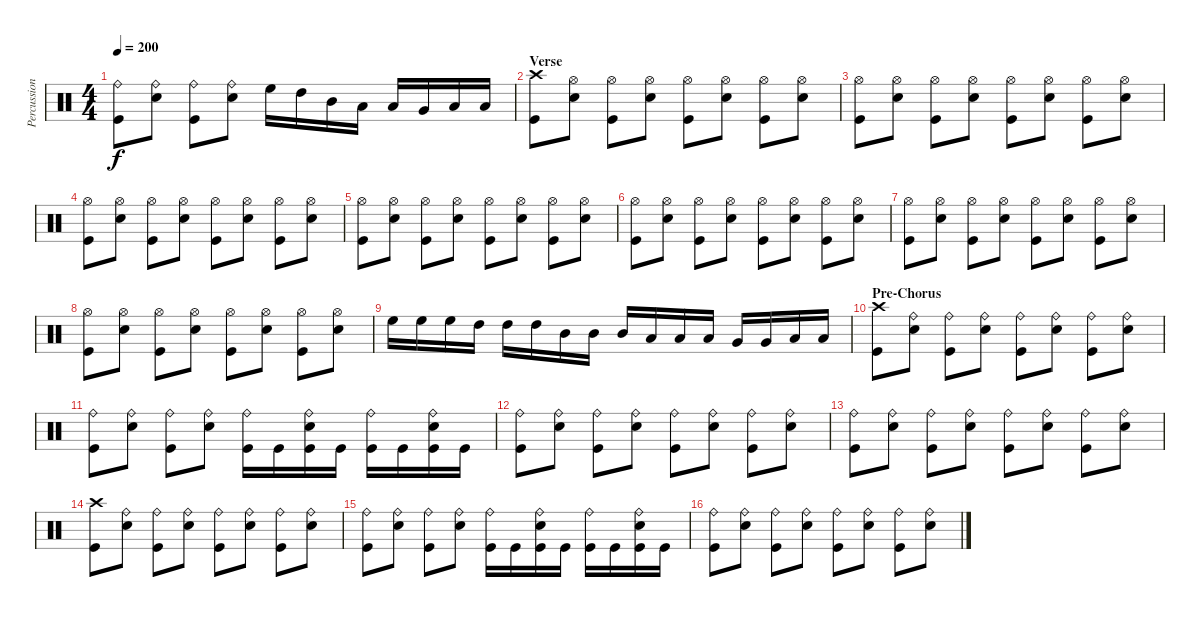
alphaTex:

\track ("Percussion" "Percussion") {instrument percussion}
\staff {score}
\articulation defaults
\ts (4 4)
\tempo 200
\clef neutral
\ks c
("Ride (bell)" "Kick (hit)").8{dy f} ("Ride (bell)" "Electric Snare (hit)").8 ("Ride (bell)" "Kick (hit)").8 ("Ride (bell)" "Electric Snare (hit)").8 "High Floor Tom (hit)".16 "High Tom (hit)".16 "Mid Tom (hit)".16 "Low Tom (hit)".16 "Low Tom (hit)".16 "Very Low Tom (hit)".16 "Low Floor Tom (hit)".16 "Low Tom (hit)".16 |
\section ("" "Verse")
("Crash high (hit)" "Kick (hit)").8 ("Hi-Hat (open)" "Electric Snare (hit)").8 ("Hi-Hat (open)" "Kick (hit)").8 ("Hi-Hat (open)" "Electric Snare (hit)").8 ("Hi-Hat (open)" "Kick (hit)").8 ("Hi-Hat (open)" "Electric Snare (hit)").8 ("Hi-Hat (open)" "Kick (hit)").8 ("Hi-Hat (open)" "Electric Snare (hit)").8 |
("Hi-Hat (open)" "Kick (hit)").8 ("Hi-Hat (open)" "Electric Snare (hit)").8 ("Hi-Hat (open)" "Kick (hit)").8 ("Hi-Hat (open)" "Electric Snare (hit)").8 ("Hi-Hat (open)" "Kick (hit)").8 ("Hi-Hat (open)" "Electric Snare (hit)").8 ("Hi-Hat (open)" "Kick (hit)").8 ("Hi-Hat (open)" "Electric Snare (hit)").8 |
("Hi-Hat (open)" "Kick (hit)").8 ("Hi-Hat (open)" "Electric Snare (hit)").8 ("Hi-Hat (open)" "Kick (hit)").8 ("Hi-Hat (open)" "Electric Snare (hit)").8 ("Hi-Hat (open)" "Kick (hit)").8 ("Hi-Hat (open)" "Electric Snare (hit)").8 ("Hi-Hat (open)" "Kick (hit)").8 ("Hi-Hat (open)" "Electric Snare (hit)").8 |
("Hi-Hat (open)" "Kick (hit)").8 ("Hi-Hat (open)" "Electric Snare (hit)").8 ("Hi-Hat (open)" "Kick (hit)").8 ("Hi-Hat (open)" "Electric Snare (hit)").8 ("Hi-Hat (open)" "Kick (hit)").8 ("Hi-Hat (open)" "Electric Snare (hit)").8 ("Hi-Hat (open)" "Kick (hit)").8 ("Hi-Hat (open)" "Electric Snare (hit)").8 |
("Hi-Hat (open)" "Kick (hit)").8 ("Hi-Hat (open)" "Electric Snare (hit)").8 ("Hi-Hat (open)" "Kick (hit)").8 ("Hi-Hat (open)" "Electric Snare (hit)").8 ("Hi-Hat (open)" "Kick (hit)").8 ("Hi-Hat (open)" "Electric Snare (hit)").8 ("Hi-Hat (open)" "Kick (hit)").8 ("Hi-Hat (open)" "Electric Snare (hit)").8 |
("Hi-Hat (open)" "Kick (hit)").8 ("Hi-Hat (open)" "Electric Snare (hit)").8 ("Hi-Hat (open)" "Kick (hit)").8 ("Hi-Hat (open)" "Electric Snare (hit)").8 ("Hi-Hat (open)" "Kick (hit)").8 ("Hi-Hat (open)" "Electric Snare (hit)").8 ("Hi-Hat (open)" "Kick (hit)").8 ("Hi-Hat (open)" "Electric Snare (hit)").8 |
("Hi-Hat (open)" "Kick (hit)").8 ("Hi-Hat (open)" "Electric Snare (hit)").8 ("Hi-Hat (open)" "Kick (hit)").8 ("Hi-Hat (open)" "Electric Snare (hit)").8 ("Hi-Hat (open)" "Kick (hit)").8 ("Hi-Hat (open)" "Electric Snare (hit)").8 ("Hi-Hat (open)" "Kick (hit)").8 ("Hi-Hat (open)" "Electric Snare (hit)").8 |
"High Floor Tom (hit)".16 "High Floor Tom (hit)".16 "High Floor Tom (hit)".16 "High Tom (hit)".16 "High Tom (hit)".16 "High Tom (hit)".16 "Mid Tom (hit)".16 "Mid Tom (hit)".16 "Mid Tom (hit)".16 "Low Tom (hit)".16 "Low Tom (hit)".16 "Low Tom (hit)".16 "Very Low Tom (hit)".16 "Very Low Tom (hit)".16 "Low Floor Tom (hit)".16 "Low Floor Tom (hit)".16 |
\section ("" "Pre-Chorus")
("Crash high (hit)" "Kick (hit)").8 ("Ride (bell)" "Electric Snare (hit)").8 ("Ride (bell)" "Kick (hit)").8 ("Ride (bell)" "Electric Snare (hit)").8 ("Ride (bell)" "Kick (hit)").8 ("Ride (bell)" "Electric Snare (hit)").8 ("Ride (bell)" "Kick (hit)").8 ("Ride (bell)" "Electric Snare (hit)").8 |
("Ride (bell)" "Kick (hit)").8 ("Ride (bell)" "Electric Snare (hit)").8 ("Ride (bell)" "Kick (hit)").8 ("Ride (bell)" "Electric Snare (hit)").8 ("Ride (bell)" "Kick (hit)").16 "Kick (hit)".16 ("Ride (bell)" "Electric Snare (hit)" "Kick (hit)").16 "Kick (hit)".16 ("Ride (bell)" "Kick (hit)").16 "Kick (hit)".16 ("Ride (bell)" "Electric Snare (hit)" "Kick (hit)").16 "Kick (hit)".16 |
("Ride (bell)" "Kick (hit)").8 ("Ride (bell)" "Electric Snare (hit)").8 ("Ride (bell)" "Kick (hit)").8 ("Ride (bell)" "Electric Snare (hit)").8 ("Ride (bell)" "Kick (hit)").8 ("Ride (bell)" "Electric Snare (hit)").8 ("Ride (bell)" "Kick (hit)").8 ("Ride (bell)" "Electric Snare (hit)").8 |
("Ride (bell)" "Kick (hit)").8 ("Ride (bell)" "Electric Snare (hit)").8 ("Ride (bell)" "Kick (hit)").8 ("Ride (bell)" "Electric Snare (hit)").8 ("Ride (bell)" "Kick (hit)").8 ("Ride (bell)" "Electric Snare (hit)").8 ("Ride (bell)" "Kick (hit)").8 ("Ride (bell)" "Electric Snare (hit)").8 |
("Crash high (hit)" "Kick (hit)").8 ("Ride (bell)" "Electric Snare (hit)").8 ("Ride (bell)" "Kick (hit)").8 ("Ride (bell)" "Electric Snare (hit)").8 ("Ride (bell)" "Kick (hit)").8 ("Ride (bell)" "Electric Snare (hit)").8 ("Ride (bell)" "Kick (hit)").8 ("Ride (bell)" "Electric Snare (hit)").8 |
("Ride (bell)" "Kick (hit)").8 ("Ride (bell)" "Electric Snare (hit)").8 ("Ride (bell)" "Kick (hit)").8 ("Ride (bell)" "Electric Snare (hit)").8 ("Ride (bell)" "Kick (hit)").16 "Kick (hit)".16 ("Ride (bell)" "Electric Snare (hit)" "Kick (hit)").16 "Kick (hit)".16 ("Ride (bell)" "Kick (hit)").16 "Kick (hit)".16 ("Ride (bell)" "Electric Snare (hit)" "Kick (hit)").16 "Kick (hit)".16 |
("Ride (bell)" "Kick (hit)").8 ("Ride (bell)" "Electric Snare (hit)").8 ("Ride (bell)" "Kick (hit)").8 ("Ride (bell)" "Electric Snare (hit)").8 ("Ride (bell)" "Kick (hit)").8 ("Ride (bell)" "Electric Snare (hit)").8 ("Ride (bell)" "Kick (hit)").8 ("Ride (bell)" "Electric Snare (hit)").8
